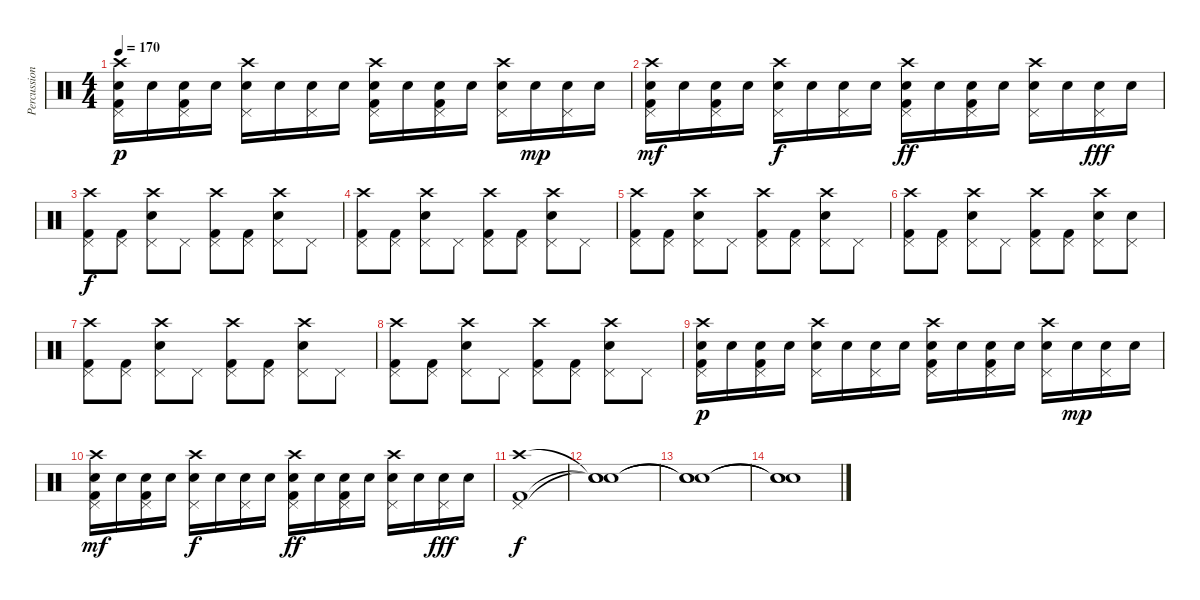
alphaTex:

\track ("Percussion" "Percussion") {instrument percussion}
\staff {score}
\articulation defaults
\ts (4 4)
\tempo 170
\clef neutral
\ks c
("Pedal Hi-Hat (hit)" "Electric Snare (hit)" "Kick (hit) 2" "Crash high (hit)").16{dy p} "Electric Snare (hit)".16 ("Pedal Hi-Hat (hit)" "Electric Snare (hit)" "Kick (hit) 2").16 "Electric Snare (hit)".16 ("Pedal Hi-Hat (hit)" "Electric Snare (hit)" "Crash high (hit)").16 "Electric Snare (hit)".16 ("Pedal Hi-Hat (hit)" "Electric Snare (hit)").16 "Electric Snare (hit)".16 ("Pedal Hi-Hat (hit)" "Electric Snare (hit)" "Kick (hit) 2" "Crash high (hit)").16 "Electric Snare (hit)".16 ("Pedal Hi-Hat (hit)" "Electric Snare (hit)" "Kick (hit) 2").16 "Electric Snare (hit)".16 ("Pedal Hi-Hat (hit)" "Electric Snare (hit)" "Crash high (hit)").16 "Electric Snare (hit)".16{dy mp} ("Pedal Hi-Hat (hit)" "Electric Snare (hit)").16 "Electric Snare (hit)".16 |
("Pedal Hi-Hat (hit)" "Electric Snare (hit)" "Kick (hit) 2" "Crash high (hit)").16{dy mf} "Electric Snare (hit)".16 ("Pedal Hi-Hat (hit)" "Electric Snare (hit)" "Kick (hit) 2").16 "Electric Snare (hit)".16 ("Pedal Hi-Hat (hit)" "Electric Snare (hit)" "Crash high (hit)").16{dy f} "Electric Snare (hit)".16 ("Pedal Hi-Hat (hit)" "Electric Snare (hit)").16 "Electric Snare (hit)".16 ("Pedal Hi-Hat (hit)" "Electric Snare (hit)" "Kick (hit) 2" "Crash high (hit)").16{dy ff} "Electric Snare (hit)".16 ("Pedal Hi-Hat (hit)" "Electric Snare (hit)" "Kick (hit) 2").16 "Electric Snare (hit)".16 ("Pedal Hi-Hat (hit)" "Electric Snare (hit)" "Crash high (hit)").16 "Electric Snare (hit)".16 ("Pedal Hi-Hat (hit)" "Electric Snare (hit)").16{dy fff} "Electric Snare (hit)".16 |
("Pedal Hi-Hat (hit)" "Kick (hit) 2" "Crash high (hit)").8{dy f} ("Pedal Hi-Hat (hit)" "Kick (hit) 2").8 ("Pedal Hi-Hat (hit)" "Electric Snare (hit)" "Crash high (hit)").8 "Pedal Hi-Hat (hit)".8 ("Pedal Hi-Hat (hit)" "Kick (hit) 2" "Crash high (hit)").8 ("Pedal Hi-Hat (hit)" "Kick (hit) 2").8 ("Pedal Hi-Hat (hit)" "Electric Snare (hit)" "Crash high (hit)").8 "Pedal Hi-Hat (hit)".8 |
("Pedal Hi-Hat (hit)" "Kick (hit) 2" "Crash high (hit)").8 ("Pedal Hi-Hat (hit)" "Kick (hit) 2").8 ("Pedal Hi-Hat (hit)" "Electric Snare (hit)" "Crash high (hit)").8 "Pedal Hi-Hat (hit)".8 ("Pedal Hi-Hat (hit)" "Kick (hit) 2" "Crash high (hit)").8 ("Pedal Hi-Hat (hit)" "Kick (hit) 2").8 ("Pedal Hi-Hat (hit)" "Electric Snare (hit)" "Crash high (hit)").8 "Pedal Hi-Hat (hit)".8 |
("Pedal Hi-Hat (hit)" "Kick (hit) 2" "Crash high (hit)").8 ("Pedal Hi-Hat (hit)" "Kick (hit) 2").8 ("Pedal Hi-Hat (hit)" "Electric Snare (hit)" "Crash high (hit)").8 "Pedal Hi-Hat (hit)".8 ("Pedal Hi-Hat (hit)" "Kick (hit) 2" "Crash high (hit)").8 ("Pedal Hi-Hat (hit)" "Kick (hit) 2").8 ("Pedal Hi-Hat (hit)" "Electric Snare (hit)" "Crash high (hit)").8 "Pedal Hi-Hat (hit)".8 |
("Pedal Hi-Hat (hit)" "Kick (hit) 2" "Crash high (hit)").8 ("Pedal Hi-Hat (hit)" "Kick (hit) 2").8 ("Pedal Hi-Hat (hit)" "Electric Snare (hit)" "Crash high (hit)").8 "Pedal Hi-Hat (hit)".8 ("Pedal Hi-Hat (hit)" "Kick (hit) 2" "Crash high (hit)").8 ("Pedal Hi-Hat (hit)" "Kick (hit) 2").8 ("Pedal Hi-Hat (hit)" "Electric Snare (hit)" "Crash high (hit)").8 ("Pedal Hi-Hat (hit)" "Electric Snare (hit)").8 |
("Pedal Hi-Hat (hit)" "Kick (hit) 2" "Crash high (hit)").8 ("Pedal Hi-Hat (hit)" "Kick (hit) 2").8 ("Pedal Hi-Hat (hit)" "Electric Snare (hit)" "Crash high (hit)").8 "Pedal Hi-Hat (hit)".8 ("Pedal Hi-Hat (hit)" "Kick (hit) 2" "Crash high (hit)").8 ("Pedal Hi-Hat (hit)" "Kick (hit) 2").8 ("Pedal Hi-Hat (hit)" "Electric Snare (hit)" "Crash high (hit)").8 "Pedal Hi-Hat (hit)".8 |
("Pedal Hi-Hat (hit)" "Kick (hit) 2" "Crash high (hit)").8 ("Pedal Hi-Hat (hit)" "Kick (hit) 2").8 ("Pedal Hi-Hat (hit)" "Electric Snare (hit)" "Crash high (hit)").8 "Pedal Hi-Hat (hit)".8 ("Pedal Hi-Hat (hit)" "Kick (hit) 2" "Crash high (hit)").8 ("Pedal Hi-Hat (hit)" "Kick (hit) 2").8 ("Pedal Hi-Hat (hit)" "Electric Snare (hit)" "Crash high (hit)").8 "Pedal Hi-Hat (hit)".8 |
("Pedal Hi-Hat (hit)" "Electric Snare (hit)" "Kick (hit) 2" "Crash high (hit)").16{dy p} "Electric Snare (hit)".16 ("Pedal Hi-Hat (hit)" "Electric Snare (hit)" "Kick (hit) 2").16 "Electric Snare (hit)".16 ("Pedal Hi-Hat (hit)" "Electric Snare (hit)" "Crash high (hit)").16 "Electric Snare (hit)".16 ("Pedal Hi-Hat (hit)" "Electric Snare (hit)").16 "Electric Snare (hit)".16 ("Pedal Hi-Hat (hit)" "Electric Snare (hit)" "Kick (hit) 2" "Crash high (hit)").16 "Electric Snare (hit)".16 ("Pedal Hi-Hat (hit)" "Electric Snare (hit)" "Kick (hit) 2").16 "Electric Snare (hit)".16 ("Pedal Hi-Hat (hit)" "Electric Snare (hit)" "Crash high (hit)").16 "Electric Snare (hit)".16{dy mp} ("Pedal Hi-Hat (hit)" "Electric Snare (hit)").16 "Electric Snare (hit)".16 |
("Pedal Hi-Hat (hit)" "Electric Snare (hit)" "Kick (hit) 2" "Crash high (hit)").16{dy mf} "Electric Snare (hit)".16 ("Pedal Hi-Hat (hit)" "Electric Snare (hit)" "Kick (hit) 2").16 "Electric Snare (hit)".16 ("Pedal Hi-Hat (hit)" "Electric Snare (hit)" "Crash high (hit)").16{dy f} "Electric Snare (hit)".16 ("Pedal Hi-Hat (hit)" "Electric Snare (hit)").16 "Electric Snare (hit)".16 ("Pedal Hi-Hat (hit)" "Electric Snare (hit)" "Kick (hit) 2" "Crash high (hit)").16{dy ff} "Electric Snare (hit)".16 ("Pedal Hi-Hat (hit)" "Electric Snare (hit)" "Kick (hit) 2").16 "Electric Snare (hit)".16 ("Pedal Hi-Hat (hit)" "Electric Snare (hit)" "Crash high (hit)").16 "Electric Snare (hit)".16 ("Pedal Hi-Hat (hit)" "Electric Snare (hit)").16{dy fff} "Electric Snare (hit)".16 |
("Pedal Hi-Hat (hit)" "Kick (hit) 2" "Crash high (hit)").1{dy f} |
("Snare (hit)"{t} "Snare (hit)"{t} "Snare (hit)"{t}).1 |
("Snare (hit)"{t} "Snare (hit)"{t} "Snare (hit)"{t}).1{volume 0} |
("Snare (hit)"{t} "Snare (hit)"{t} "Snare (hit)"{t}).1
